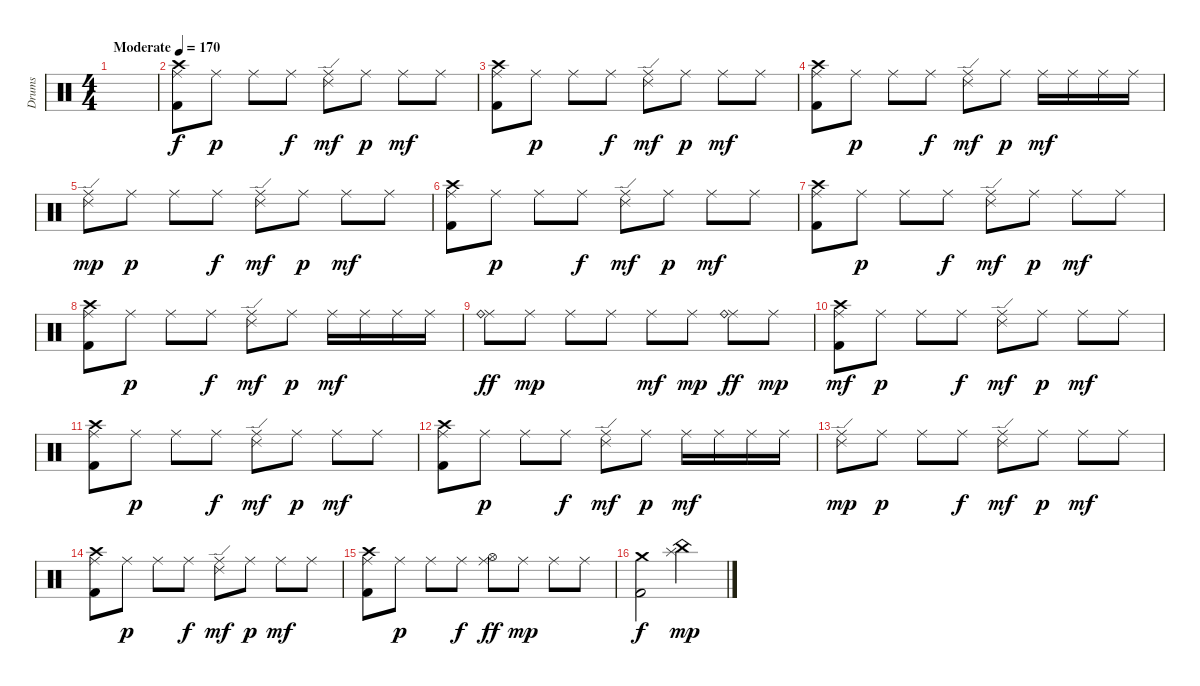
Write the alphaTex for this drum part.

\track ("Drums" "Drums") {instrument percussion}
\staff {score}
\articulation defaults
\ts (4 4)
\tempo (170 "Moderate")
\clef neutral
\ks c
|
("Crash high (hit)" "Ride (middle)" "Kick (hit) 2").8 "Ride (middle)".8{dy p} "Ride (middle)".8 "Ride (middle)".8{dy f} ("Ride (middle)" "Ride (edge) 2").8{dy mf} "Ride (middle)".8{dy p} "Ride (middle)".8{dy mf} "Ride (middle)".8 |
("Crash high (hit)" "Ride (middle)" "Kick (hit) 2").8 "Ride (middle)".8{dy p} "Ride (middle)".8 "Ride (middle)".8{dy f} ("Ride (middle)" "Ride (edge) 2").8{dy mf} "Ride (middle)".8{dy p} "Ride (middle)".8{dy mf} "Ride (middle)".8 |
("Crash high (hit)" "Ride (middle)" "Kick (hit) 2").8 "Ride (middle)".8{dy p} "Ride (middle)".8 "Ride (middle)".8{dy f} ("Ride (middle)" "Ride (edge) 2").8{dy mf} "Ride (middle)".8{dy p} "Ride (middle)".16{dy mf} "Ride (middle)".16 "Ride (middle)".16 "Ride (middle)".16 |
("Ride (middle)" "Ride (edge) 2").8{dy mp} "Ride (middle)".8{dy p} "Ride (middle)".8 "Ride (middle)".8{dy f} ("Ride (middle)" "Ride (edge) 2").8{dy mf} "Ride (middle)".8{dy p} "Ride (middle)".8{dy mf} "Ride (middle)".8 |
("Crash high (hit)" "Ride (middle)" "Kick (hit) 2").8 "Ride (middle)".8{dy p} "Ride (middle)".8 "Ride (middle)".8{dy f} ("Ride (middle)" "Ride (edge) 2").8{dy mf} "Ride (middle)".8{dy p} "Ride (middle)".8{dy mf} "Ride (middle)".8 |
("Crash high (hit)" "Ride (middle)" "Kick (hit) 2").8 "Ride (middle)".8{dy p} "Ride (middle)".8 "Ride (middle)".8{dy f} ("Ride (middle)" "Ride (edge) 2").8{dy mf} "Ride (middle)".8{dy p} "Ride (middle)".8{dy mf} "Ride (middle)".8 |
("Crash high (hit)" "Ride (middle)" "Kick (hit) 2").8 "Ride (middle)".8{dy p} "Ride (middle)".8 "Ride (middle)".8{dy f} ("Ride (middle)" "Ride (edge) 2").8{dy mf} "Ride (middle)".8{dy p} "Ride (middle)".16{dy mf} "Ride (middle)".16 "Ride (middle)".16 "Ride (middle)".16 |
("Ride (middle)" "Ride (bell)").8{dy ff} "Ride (middle)".8{dy mp} "Ride (middle)".8 "Ride (middle)".8 "Ride (middle)".8{dy mf} "Ride (middle)".8{dy mp} ("Ride (middle)" "Ride (bell)").8{dy ff} "Ride (middle)".8{dy mp} |
("Crash high (hit)" "Ride (middle)" "Kick (hit) 2").8{dy mf} "Ride (middle)".8{dy p} "Ride (middle)".8 "Ride (middle)".8{dy f} ("Ride (middle)" "Ride (edge) 2").8{dy mf} "Ride (middle)".8{dy p} "Ride (middle)".8{dy mf} "Ride (middle)".8 |
("Crash high (hit)" "Ride (middle)" "Kick (hit) 2").8 "Ride (middle)".8{dy p} "Ride (middle)".8 "Ride (middle)".8{dy f} ("Ride (middle)" "Ride (edge) 2").8{dy mf} "Ride (middle)".8{dy p} "Ride (middle)".8{dy mf} "Ride (middle)".8 |
("Crash high (hit)" "Ride (middle)" "Kick (hit) 2").8 "Ride (middle)".8{dy p} "Ride (middle)".8 "Ride (middle)".8{dy f} ("Ride (middle)" "Ride (edge) 2").8{dy mf} "Ride (middle)".8{dy p} "Ride (middle)".16{dy mf} "Ride (middle)".16 "Ride (middle)".16 "Ride (middle)".16 |
("Ride (middle)" "Ride (edge) 2").8{dy mp} "Ride (middle)".8{dy p} "Ride (middle)".8 "Ride (middle)".8{dy f} ("Ride (middle)" "Ride (edge) 2").8{dy mf} "Ride (middle)".8{dy p} "Ride (middle)".8{dy mf} "Ride (middle)".8 |
("Crash high (hit)" "Ride (middle)" "Kick (hit) 2").8 "Ride (middle)".8{dy p} "Ride (middle)".8 "Ride (middle)".8{dy f} ("Ride (middle)" "Ride (edge) 2").8{dy mf} "Ride (middle)".8{dy p} "Ride (middle)".8{dy mf} "Ride (middle)".8 |
("Crash high (hit)" "Ride (middle)" "Kick (hit) 2").8 "Ride (middle)".8{dy p} "Ride (middle)".8 "Ride (middle)".8{dy f} ("Hi-Hat (open)" "Ride (middle)").8{dy ff} "Ride (middle)".8{dy mp} "Ride (middle)".8 "Ride (middle)".8 |
("Crash medium (hit)" "Kick (hit) 2").2{dy f} ("China (hit)" "Splash (hit)").2{dy mp}
